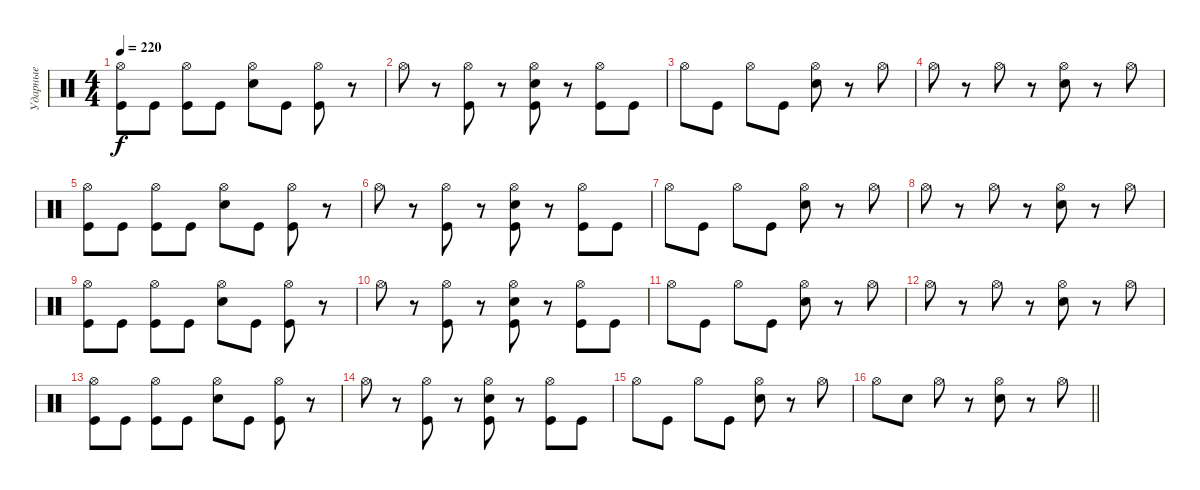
\track ("Ударные" "Ударные") {instrument percussion}
\staff {score}
\articulation defaults
\ts (4 4)
\tempo 220
\clef neutral
\ks c
("Hi-Hat (open)" "Kick (hit)").8{dy f} "Kick (hit)".8 ("Hi-Hat (open)" "Kick (hit)").8 "Kick (hit)".8 ("Hi-Hat (open)" "Electric Snare (hit)").8 "Kick (hit)".8 ("Hi-Hat (open)" "Kick (hit)").8 r.8 |
"Hi-Hat (open)".8 r.8 ("Hi-Hat (open)" "Kick (hit)").8 r.8 ("Hi-Hat (open)" "Electric Snare (hit)" "Kick (hit)").8 r.8 ("Hi-Hat (open)" "Kick (hit)").8 "Kick (hit)".8 |
"Hi-Hat (open)".8 "Kick (hit)".8 "Hi-Hat (open)".8 "Kick (hit)".8 ("Hi-Hat (open)" "Electric Snare (hit)").8 r.8 "Hi-Hat (open)".8 |
"Hi-Hat (open)".8 r.8 "Hi-Hat (open)".8 r.8 ("Hi-Hat (open)" "Electric Snare (hit)").8 r.8 "Hi-Hat (open)".8 |
("Hi-Hat (open)" "Kick (hit)").8 "Kick (hit)".8 ("Hi-Hat (open)" "Kick (hit)").8 "Kick (hit)".8 ("Hi-Hat (open)" "Electric Snare (hit)").8 "Kick (hit)".8 ("Hi-Hat (open)" "Kick (hit)").8 r.8 |
"Hi-Hat (open)".8 r.8 ("Hi-Hat (open)" "Kick (hit)").8 r.8 ("Hi-Hat (open)" "Electric Snare (hit)" "Kick (hit)").8 r.8 ("Hi-Hat (open)" "Kick (hit)").8 "Kick (hit)".8 |
"Hi-Hat (open)".8 "Kick (hit)".8 "Hi-Hat (open)".8 "Kick (hit)".8 ("Hi-Hat (open)" "Electric Snare (hit)").8 r.8 "Hi-Hat (open)".8 |
"Hi-Hat (open)".8 r.8 "Hi-Hat (open)".8 r.8 ("Hi-Hat (open)" "Electric Snare (hit)").8 r.8 "Hi-Hat (open)".8 |
("Hi-Hat (open)" "Kick (hit)").8 "Kick (hit)".8 ("Hi-Hat (open)" "Kick (hit)").8 "Kick (hit)".8 ("Hi-Hat (open)" "Electric Snare (hit)").8 "Kick (hit)".8 ("Hi-Hat (open)" "Kick (hit)").8 r.8 |
"Hi-Hat (open)".8 r.8 ("Hi-Hat (open)" "Kick (hit)").8 r.8 ("Hi-Hat (open)" "Electric Snare (hit)" "Kick (hit)").8 r.8 ("Hi-Hat (open)" "Kick (hit)").8 "Kick (hit)".8 |
"Hi-Hat (open)".8 "Kick (hit)".8 "Hi-Hat (open)".8 "Kick (hit)".8 ("Hi-Hat (open)" "Electric Snare (hit)").8 r.8 "Hi-Hat (open)".8 |
"Hi-Hat (open)".8 r.8 "Hi-Hat (open)".8 r.8 ("Hi-Hat (open)" "Electric Snare (hit)").8 r.8 "Hi-Hat (open)".8 |
("Hi-Hat (open)" "Kick (hit)").8 "Kick (hit)".8 ("Hi-Hat (open)" "Kick (hit)").8 "Kick (hit)".8 ("Hi-Hat (open)" "Electric Snare (hit)").8 "Kick (hit)".8 ("Hi-Hat (open)" "Kick (hit)").8 r.8 |
"Hi-Hat (open)".8 r.8 ("Hi-Hat (open)" "Kick (hit)").8 r.8 ("Hi-Hat (open)" "Electric Snare (hit)" "Kick (hit)").8 r.8 ("Hi-Hat (open)" "Kick (hit)").8 "Kick (hit)".8 |
"Hi-Hat (open)".8 "Kick (hit)".8 "Hi-Hat (open)".8 "Kick (hit)".8 ("Hi-Hat (open)" "Electric Snare (hit)").8 r.8 "Hi-Hat (open)".8 |
\barLineRight lightlight "Hi-Hat (open)".8 "Electric Snare (hit)".8 "Hi-Hat (open)".8
r.8 ("Hi-Hat (open)" "Electric Snare (hit)").8 r.8 "Hi-Hat (open)".8
